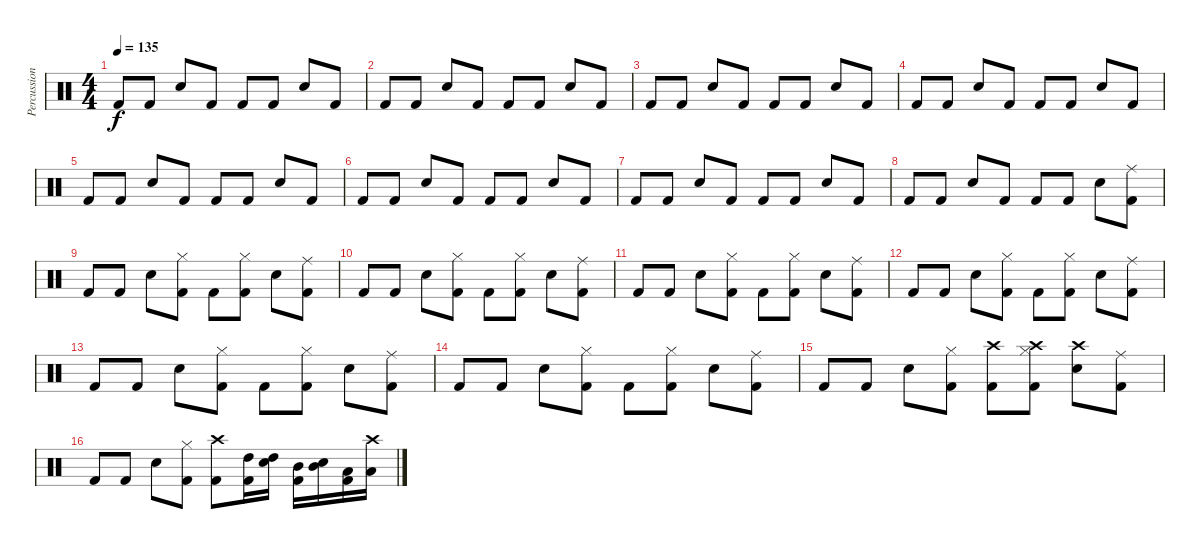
\track ("Percussion" "Percussion") {instrument percussion}
\staff {score}
\articulation defaults
\ts (4 4)
\tempo 135
\clef neutral
\ks c "Kick (hit) 2".8{dy f} "Kick (hit) 2".8 "Electric Snare (hit)".8 "Kick (hit) 2".8 "Kick (hit) 2".8 "Kick (hit) 2".8 "Electric Snare (hit)".8 "Kick (hit) 2".8
|
"Kick (hit) 2".8 "Kick (hit) 2".8 "Electric Snare (hit)".8 "Kick (hit) 2".8 "Kick (hit) 2".8 "Kick (hit) 2".8 "Electric Snare (hit)".8 "Kick (hit) 2".8 |
"Kick (hit) 2".8 "Kick (hit) 2".8 "Electric Snare (hit)".8 "Kick (hit) 2".8 "Kick (hit) 2".8 "Kick (hit) 2".8 "Electric Snare (hit)".8 "Kick (hit) 2".8 |
"Kick (hit) 2".8 "Kick (hit) 2".8 "Electric Snare (hit)".8 "Kick (hit) 2".8 "Kick (hit) 2".8 "Kick (hit) 2".8 "Electric Snare (hit)".8 "Kick (hit) 2".8 |
"Kick (hit) 2".8 "Kick (hit) 2".8 "Electric Snare (hit)".8 "Kick (hit) 2".8 "Kick (hit) 2".8 "Kick (hit) 2".8 "Electric Snare (hit)".8 "Kick (hit) 2".8 |
"Kick (hit) 2".8 "Kick (hit) 2".8 "Electric Snare (hit)".8 "Kick (hit) 2".8 "Kick (hit) 2".8 "Kick (hit) 2".8 "Electric Snare (hit)".8 "Kick (hit) 2".8 |
"Kick (hit) 2".8 "Kick (hit) 2".8 "Electric Snare (hit)".8 "Kick (hit) 2".8 "Kick (hit) 2".8 "Kick (hit) 2".8 "Electric Snare (hit)".8 "Kick (hit) 2".8 |
"Kick (hit) 2".8 "Kick (hit) 2".8 "Electric Snare (hit)".8 "Kick (hit) 2".8 "Kick (hit) 2".8 "Kick (hit) 2".8 "Electric Snare (hit)".8 ("Ride (middle)" "Kick (hit) 2").8 |
"Kick (hit) 2".8 "Kick (hit) 2".8 "Electric Snare (hit)".8 ("Hi-Hat (closed)" "Kick (hit) 2").8 "Kick (hit) 2".8 ("Hi-Hat (closed)" "Kick (hit) 2").8 "Electric Snare (hit)".8 ("Ride (middle)" "Kick (hit) 2").8 |
"Kick (hit) 2".8 "Kick (hit) 2".8 "Electric Snare (hit)".8 ("Hi-Hat (closed)" "Kick (hit) 2").8 "Kick (hit) 2".8 ("Hi-Hat (closed)" "Kick (hit) 2").8 "Electric Snare (hit)".8 ("Ride (middle)" "Kick (hit) 2").8 |
"Kick (hit) 2".8 "Kick (hit) 2".8 "Electric Snare (hit)".8 ("Hi-Hat (closed)" "Kick (hit) 2").8 "Kick (hit) 2".8 ("Hi-Hat (closed)" "Kick (hit) 2").8 "Electric Snare (hit)".8 ("Ride (middle)" "Kick (hit) 2").8 |
"Kick (hit) 2".8 "Kick (hit) 2".8 "Electric Snare (hit)".8 ("Hi-Hat (closed)" "Kick (hit) 2").8 "Kick (hit) 2".8 ("Hi-Hat (closed)" "Kick (hit) 2").8 "Electric Snare (hit)".8 ("Ride (middle)" "Kick (hit) 2").8 |
"Kick (hit) 2".8 "Kick (hit) 2".8 "Electric Snare (hit)".8 ("Hi-Hat (closed)" "Kick (hit) 2").8 "Kick (hit) 2".8 ("Hi-Hat (closed)" "Kick (hit) 2").8 "Electric Snare (hit)".8 ("Ride (middle)" "Kick (hit) 2").8 |
"Kick (hit) 2".8 "Kick (hit) 2".8 "Electric Snare (hit)".8 ("Hi-Hat (closed)" "Kick (hit) 2").8 "Kick (hit) 2".8 ("Hi-Hat (closed)" "Kick (hit) 2").8 "Electric Snare (hit)".8 ("Ride (middle)" "Kick (hit) 2").8 |
"Kick (hit) 2".8 "Kick (hit) 2".8 "Electric Snare (hit)".8 ("Hi-Hat (closed)" "Kick (hit) 2").8 ("Crash high (hit)" "Kick (hit) 2").8 ("Crash high (hit)" "Hi-Hat (closed)" "Kick (hit) 2").8 ("Crash high (hit)" "Electric Snare (hit)").8 ("Ride (middle)" "Kick (hit) 2").8 |
"Kick (hit) 2".8 "Kick (hit) 2".8 "Electric Snare (hit)".8 ("Hi-Hat (closed)" "Kick (hit) 2").8 ("Crash high (hit)" "Kick (hit) 2").8 ("High Tom (hit)" "Kick (hit) 2").16 ("High Tom (hit)" "Electric Snare (hit)").16 ("Mid Tom (hit)" "Kick (hit) 2").16 ("Mid Tom (hit)" "Electric Snare (hit)").16 ("Low Tom (hit)" "Kick (hit) 2").16 ("Crash high (hit)" "Low Tom (hit)").16
